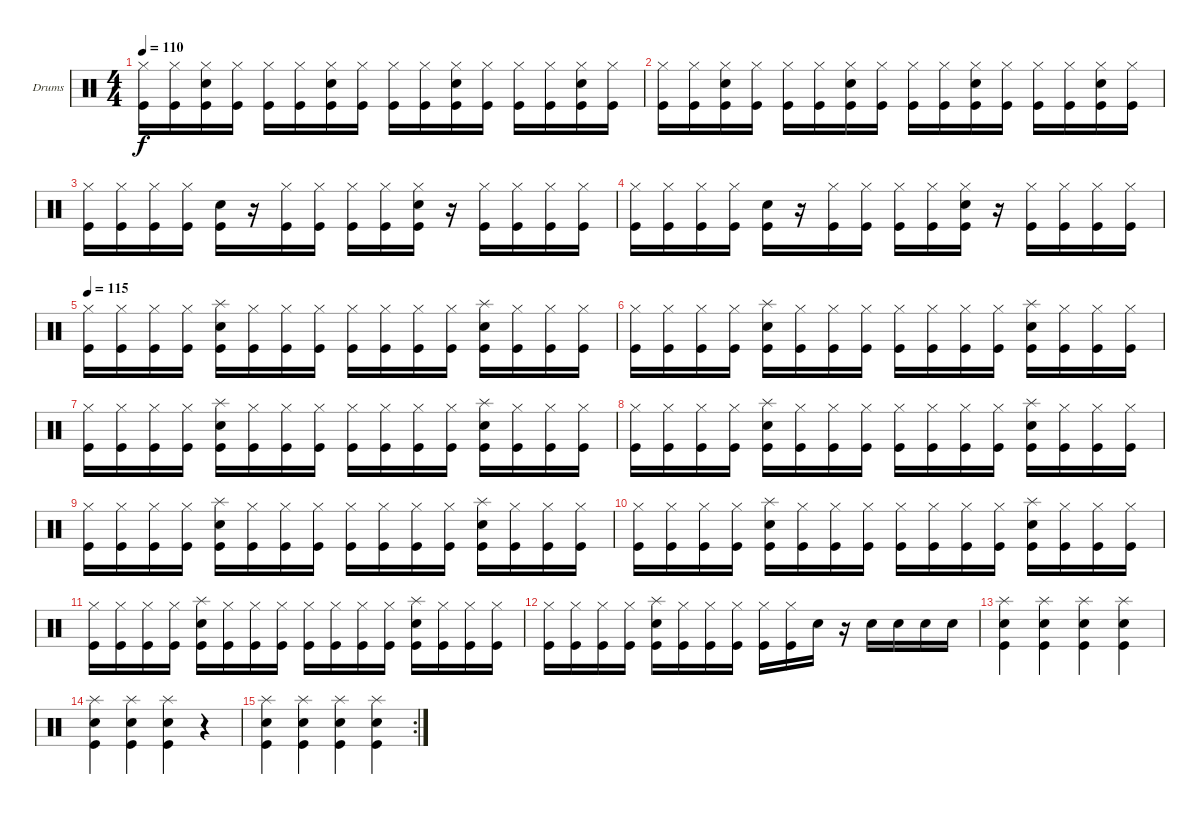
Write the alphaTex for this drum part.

\bracketExtendMode groupsimilarinstruments
\firstSystemTrackNameOrientation horizontal
\otherSystemsTrackNameOrientation horizontal
\track ("Drumkit" "Drums") {instrument percussion}
\staff {score}
\articulation defaults
\ts (4 4)
\tempo 110
\clef neutral
\scale
0.333333
\ks c
("Kick (hit)" "Hi-Hat (closed)").16{dy f} ("Kick (hit)" "Hi-Hat (closed)").16 ("Kick (hit)" "Snare (hit) 2" "Hi-Hat (closed)").16 ("Kick (hit)" "Hi-Hat (closed)").16 ("Kick (hit)" "Hi-Hat (closed)").16 ("Kick (hit)" "Hi-Hat (closed)").16 ("Kick (hit)" "Snare (hit) 2" "Hi-Hat (closed)").16 ("Kick (hit)" "Hi-Hat (closed)").16 ("Kick (hit)" "Hi-Hat (closed)").16 ("Kick (hit)" "Hi-Hat (closed)").16 ("Kick (hit)" "Snare (hit) 2" "Hi-Hat (closed)").16 ("Kick (hit)" "Hi-Hat (closed)").16 ("Kick (hit)" "Hi-Hat (closed)").16 ("Kick (hit)" "Hi-Hat (closed)").16 ("Kick (hit)" "Snare (hit) 2" "Hi-Hat (closed)").16 ("Kick (hit)" "Hi-Hat (closed)").16 |
\scale
0.333333 ("Kick (hit)" "Hi-Hat (closed)").16 ("Kick (hit)" "Hi-Hat (closed)").16 ("Kick (hit)" "Snare (hit) 2" "Hi-Hat (closed)").16 ("Kick (hit)" "Hi-Hat (closed)").16 ("Kick (hit)" "Hi-Hat (closed)").16 ("Kick (hit)" "Hi-Hat (closed)").16 ("Kick (hit)" "Snare (hit) 2" "Hi-Hat (closed)").16 ("Kick (hit)" "Hi-Hat (closed)").16 ("Kick (hit)" "Hi-Hat (closed)").16 ("Kick (hit)" "Hi-Hat (closed)").16 ("Kick (hit)" "Snare (hit) 2" "Hi-Hat (closed)").16 ("Kick (hit)" "Hi-Hat (closed)").16 ("Kick (hit)" "Hi-Hat (closed)").16 ("Kick (hit)" "Hi-Hat (closed)").16 ("Kick (hit)" "Snare (hit) 2" "Hi-Hat (closed)").16 ("Kick (hit)" "Hi-Hat (closed)").16 |
\scale
0.333333 ("Kick (hit)" "Hi-Hat (closed)").16 ("Kick (hit)" "Hi-Hat (closed)").16 ("Kick (hit)" "Hi-Hat (closed)").16 ("Kick (hit)" "Hi-Hat (closed)").16 ("Kick (hit)" "Snare (hit) 2").16 r.16 ("Kick (hit)" "Hi-Hat (closed)").16 ("Kick (hit)" "Hi-Hat (closed)").16 ("Kick (hit)" "Hi-Hat (closed)").16 ("Kick (hit)" "Hi-Hat (closed)").16 ("Kick (hit)" "Snare (hit) 2" "Hi-Hat (closed)").16 r.16 ("Kick (hit)" "Hi-Hat (closed)").16 ("Kick (hit)" "Hi-Hat (closed)").16 ("Kick (hit)" "Hi-Hat (closed)").16 ("Kick (hit)" "Hi-Hat (closed)").16 |
\scale
0.333333 ("Kick (hit)" "Hi-Hat (closed)").16 ("Kick (hit)" "Hi-Hat (closed)").16 ("Kick (hit)" "Hi-Hat (closed)").16 ("Kick (hit)" "Hi-Hat (closed)").16 ("Kick (hit)" "Snare (hit) 2").16 r.16 ("Kick (hit)" "Hi-Hat (closed)").16 ("Kick (hit)" "Hi-Hat (closed)").16 ("Kick (hit)" "Hi-Hat (closed)").16 ("Kick (hit)" "Hi-Hat (closed)").16 ("Kick (hit)" "Snare (hit) 2" "Hi-Hat (closed)").16 r.16 ("Kick (hit)" "Hi-Hat (closed)").16 ("Kick (hit)" "Hi-Hat (closed)").16 ("Kick (hit)" "Hi-Hat (closed)").16 ("Kick (hit)" "Hi-Hat (closed)").16 |
\tempo 115
\scale
0.333333 ("Kick (hit)" "Hi-Hat (closed)").16 ("Kick (hit)" "Hi-Hat (closed)").16 ("Kick (hit)" "Hi-Hat (closed)").16 ("Kick (hit)" "Hi-Hat (closed)").16 ("Snare (hit) 2" "Kick (hit)" "Splash (hit)").16 ("Kick (hit)" "Hi-Hat (closed)").16 ("Kick (hit)" "Hi-Hat (closed)").16 ("Kick (hit)" "Hi-Hat (closed)").16 ("Kick (hit)" "Hi-Hat (closed)").16 ("Kick (hit)" "Hi-Hat (closed)").16 ("Kick (hit)" "Hi-Hat (closed)").16 ("Hi-Hat (closed)" "Kick (hit)").16 ("Snare (hit) 2" "Kick (hit)" "Splash (hit)").16 ("Kick (hit)" "Hi-Hat (closed)").16 ("Kick (hit)" "Hi-Hat (closed)").16 ("Kick (hit)" "Hi-Hat (closed)").16 |
\scale
0.333333 ("Kick (hit)" "Hi-Hat (closed)").16 ("Kick (hit)" "Hi-Hat (closed)").16 ("Kick (hit)" "Hi-Hat (closed)").16 ("Kick (hit)" "Hi-Hat (closed)").16 ("Snare (hit) 2" "Kick (hit)" "Splash (hit)").16 ("Kick (hit)" "Hi-Hat (closed)").16 ("Kick (hit)" "Hi-Hat (closed)").16 ("Kick (hit)" "Hi-Hat (closed)").16 ("Kick (hit)" "Hi-Hat (closed)").16 ("Kick (hit)" "Hi-Hat (closed)").16 ("Kick (hit)" "Hi-Hat (closed)").16 ("Hi-Hat (closed)" "Kick (hit)").16 ("Snare (hit) 2" "Kick (hit)" "Splash (hit)").16 ("Kick (hit)" "Hi-Hat (closed)").16 ("Kick (hit)" "Hi-Hat (closed)").16 ("Kick (hit)" "Hi-Hat (closed)").16 |
\scale
0.333333 ("Kick (hit)" "Hi-Hat (closed)").16 ("Kick (hit)" "Hi-Hat (closed)").16 ("Kick (hit)" "Hi-Hat (closed)").16 ("Kick (hit)" "Hi-Hat (closed)").16 ("Snare (hit) 2" "Kick (hit)" "Splash (hit)").16 ("Kick (hit)" "Hi-Hat (closed)").16 ("Kick (hit)" "Hi-Hat (closed)").16 ("Kick (hit)" "Hi-Hat (closed)").16 ("Kick (hit)" "Hi-Hat (closed)").16 ("Kick (hit)" "Hi-Hat (closed)").16 ("Kick (hit)" "Hi-Hat (closed)").16 ("Hi-Hat (closed)" "Kick (hit)").16 ("Snare (hit) 2" "Kick (hit)" "Splash (hit)").16 ("Kick (hit)" "Hi-Hat (closed)").16 ("Kick (hit)" "Hi-Hat (closed)").16 ("Kick (hit)" "Hi-Hat (closed)").16 |
\scale
0.333333 ("Kick (hit)" "Hi-Hat (closed)").16 ("Kick (hit)" "Hi-Hat (closed)").16 ("Kick (hit)" "Hi-Hat (closed)").16 ("Kick (hit)" "Hi-Hat (closed)").16 ("Snare (hit) 2" "Kick (hit)" "Splash (hit)").16 ("Kick (hit)" "Hi-Hat (closed)").16 ("Kick (hit)" "Hi-Hat (closed)").16 ("Kick (hit)" "Hi-Hat (closed)").16 ("Kick (hit)" "Hi-Hat (closed)").16 ("Kick (hit)" "Hi-Hat (closed)").16 ("Kick (hit)" "Hi-Hat (closed)").16 ("Hi-Hat (closed)" "Kick (hit)").16 ("Snare (hit) 2" "Kick (hit)" "Splash (hit)").16 ("Kick (hit)" "Hi-Hat (closed)").16 ("Kick (hit)" "Hi-Hat (closed)").16 ("Kick (hit)" "Hi-Hat (closed)").16 |
\scale
0.333333 ("Kick (hit)" "Hi-Hat (closed)").16 ("Kick (hit)" "Hi-Hat (closed)").16 ("Kick (hit)" "Hi-Hat (closed)").16 ("Kick (hit)" "Hi-Hat (closed)").16 ("Snare (hit) 2" "Kick (hit)" "Splash (hit)").16 ("Kick (hit)" "Hi-Hat (closed)").16 ("Kick (hit)" "Hi-Hat (closed)").16 ("Kick (hit)" "Hi-Hat (closed)").16 ("Kick (hit)" "Hi-Hat (closed)").16 ("Kick (hit)" "Hi-Hat (closed)").16 ("Kick (hit)" "Hi-Hat (closed)").16 ("Hi-Hat (closed)" "Kick (hit)").16 ("Snare (hit) 2" "Kick (hit)" "Splash (hit)").16 ("Kick (hit)" "Hi-Hat (closed)").16 ("Kick (hit)" "Hi-Hat (closed)").16 ("Kick (hit)" "Hi-Hat (closed)").16 |
\scale
0.333333 ("Kick (hit)" "Hi-Hat (closed)").16 ("Kick (hit)" "Hi-Hat (closed)").16 ("Kick (hit)" "Hi-Hat (closed)").16 ("Kick (hit)" "Hi-Hat (closed)").16 ("Snare (hit) 2" "Kick (hit)" "Splash (hit)").16 ("Kick (hit)" "Hi-Hat (closed)").16 ("Kick (hit)" "Hi-Hat (closed)").16 ("Kick (hit)" "Hi-Hat (closed)").16 ("Kick (hit)" "Hi-Hat (closed)").16 ("Kick (hit)" "Hi-Hat (closed)").16 ("Kick (hit)" "Hi-Hat (closed)").16 ("Hi-Hat (closed)" "Kick (hit)").16 ("Snare (hit) 2" "Kick (hit)" "Splash (hit)").16 ("Kick (hit)" "Hi-Hat (closed)").16 ("Kick (hit)" "Hi-Hat (closed)").16 ("Kick (hit)" "Hi-Hat (closed)").16 |
\scale
0.333333 ("Kick (hit)" "Hi-Hat (closed)").16 ("Kick (hit)" "Hi-Hat (closed)").16 ("Kick (hit)" "Hi-Hat (closed)").16 ("Kick (hit)" "Hi-Hat (closed)").16 ("Snare (hit) 2" "Kick (hit)" "Splash (hit)").16 ("Kick (hit)" "Hi-Hat (closed)").16 ("Kick (hit)" "Hi-Hat (closed)").16 ("Kick (hit)" "Hi-Hat (closed)").16 ("Kick (hit)" "Hi-Hat (closed)").16 ("Kick (hit)" "Hi-Hat (closed)").16 ("Kick (hit)" "Hi-Hat (closed)").16 ("Hi-Hat (closed)" "Kick (hit)").16 ("Snare (hit) 2" "Kick (hit)" "Splash (hit)").16 ("Kick (hit)" "Hi-Hat (closed)").16 ("Kick (hit)" "Hi-Hat (closed)").16 ("Kick (hit)" "Hi-Hat (closed)").16 |
\scale
0.333333 ("Kick (hit)" "Hi-Hat (closed)").16 ("Kick (hit)" "Hi-Hat (closed)").16 ("Kick (hit)" "Hi-Hat (closed)").16 ("Kick (hit)" "Hi-Hat (closed)").16 ("Snare (hit) 2" "Kick (hit)" "Splash (hit)").16 ("Kick (hit)" "Hi-Hat (closed)").16 ("Kick (hit)" "Hi-Hat (closed)").16 ("Kick (hit)" "Hi-Hat (closed)").16 ("Kick (hit)" "Hi-Hat (closed)").16 ("Kick (hit)" "Hi-Hat (closed)").16 "Snare (hit) 2".16 r.16 "Snare (hit) 2".16 "Snare (hit) 2".16 "Snare (hit) 2".16 "Snare (hit) 2".16 |
\scale
0.333333 ("Splash (hit)" "Kick (hit)" "Snare (hit) 2").4 ("Splash (hit)" "Kick (hit)" "Snare (hit) 2").4 ("Splash (hit)" "Kick (hit)" "Snare (hit) 2").4 ("Splash (hit)" "Kick (hit)" "Snare (hit) 2").4 |
("Splash (hit)" "Kick (hit)" "Snare (hit) 2").4 ("Splash (hit)" "Kick (hit)" "Snare (hit) 2").4 ("Splash (hit)" "Kick (hit)" "Snare (hit) 2").4 r.4 |
\rc 2
("Splash (hit)" "Kick (hit)" "Snare (hit) 2").4 ("Splash (hit)" "Kick (hit)" "Snare (hit) 2").4 ("Splash (hit)" "Kick (hit)" "Snare (hit) 2").4 ("Splash (hit)" "Kick (hit)" "Snare (hit) 2").4
